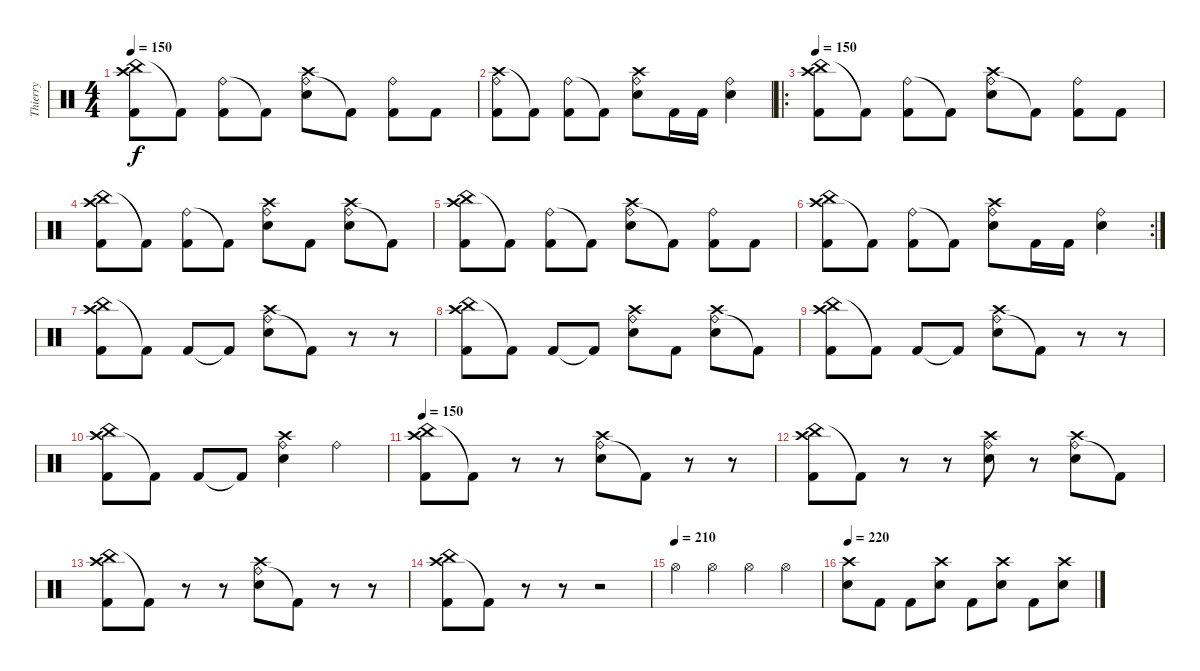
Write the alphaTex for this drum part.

\track ("Thierry" "Thierry") {instrument percussion}
\staff {score}
\articulation defaults
\ts (4 4)
\tempo 150
\clef neutral
\ks c
("China (hit)" "Crash high (hit)" "Kick (hit) 2").8{dy f} "Kick (hit) 2"{t}.8 ("Ride (bell)" "Kick (hit) 2").8 "Kick (hit) 2"{t}.8 ("Ride (bell)" "Crash high (hit)" "Electric Snare (hit)").8 "Kick (hit) 2"{t}.8 ("Ride (bell)" "Kick (hit) 2").8 "Kick (hit) 2".8 |
("Crash high (hit)" "Ride (bell)" "Kick (hit) 2").8 "Kick (hit) 2"{t}.8 ("Ride (bell)" "Kick (hit) 2").8 "Kick (hit) 2"{t}.8 ("Crash high (hit)" "Ride (bell)" "Electric Snare (hit)").8 "Kick (hit) 2".16 "Kick (hit) 2".16 ("Ride (bell)" "Electric Snare (hit)").4 |
\ro
\tempo 150
("China (hit)" "Crash high (hit)" "Kick (hit) 2").8 "Kick (hit) 2"{t}.8 ("Ride (bell)" "Kick (hit) 2").8 "Kick (hit) 2"{t}.8 ("Ride (bell)" "Crash high (hit)" "Electric Snare (hit)").8 "Kick (hit) 2"{t}.8 ("Ride (bell)" "Kick (hit) 2").8 "Kick (hit) 2".8 |
("China (hit)" "Crash high (hit)" "Kick (hit) 2").8 "Kick (hit) 2"{t}.8 ("Ride (bell)" "Kick (hit) 2").8 "Kick (hit) 2"{t}.8 ("Ride (bell)" "Crash high (hit)" "Electric Snare (hit)").8 "Kick (hit) 2".8 ("Ride (bell)" "Crash high (hit)" "Electric Snare (hit)").8 "Kick (hit) 2"{t}.8 |
("China (hit)" "Crash high (hit)" "Kick (hit) 2").8 "Kick (hit) 2"{t}.8 ("Ride (bell)" "Kick (hit) 2").8 "Kick (hit) 2"{t}.8 ("Ride (bell)" "Crash high (hit)" "Electric Snare (hit)").8 "Kick (hit) 2"{t}.8 ("Ride (bell)" "Kick (hit) 2").8 "Kick (hit) 2".8 |
\rc 2
("Crash high (hit)" "China (hit)" "Kick (hit) 2").8 "Kick (hit) 2"{t}.8 ("Ride (bell)" "Kick (hit) 2").8 "Kick (hit) 2"{t}.8 ("Crash high (hit)" "Ride (bell)" "Electric Snare (hit)").8 "Kick (hit) 2".16 "Kick (hit) 2".16 ("Ride (bell)" "Electric Snare (hit)").4 |
("China (hit)" "Crash high (hit)" "Kick (hit) 2").8 "Kick (hit) 2"{t}.8 "Kick (hit) 2".8 "Kick (hit) 2"{t}.8 ("Ride (bell)" "Crash high (hit)" "Electric Snare (hit)").8 "Kick (hit) 2"{t}.8 r.8 r.8 |
("China (hit)" "Crash high (hit)" "Kick (hit) 2").8 "Kick (hit) 2"{t}.8 "Kick (hit) 2".8 "Kick (hit) 2"{t}.8 ("Ride (bell)" "Crash high (hit)" "Electric Snare (hit)").8 "Kick (hit) 2".8 ("Ride (bell)" "Crash high (hit)" "Electric Snare (hit)").8 "Kick (hit) 2"{t}.8 |
("China (hit)" "Crash high (hit)" "Kick (hit) 2").8 "Kick (hit) 2"{t}.8 "Kick (hit) 2".8 "Kick (hit) 2"{t}.8 ("Ride (bell)" "Crash high (hit)" "Electric Snare (hit)").8 "Kick (hit) 2"{t}.8 r.8 r.8 |
("Crash high (hit)" "China (hit)" "Kick (hit) 2").8 "Kick (hit) 2"{t}.8 "Kick (hit) 2".8 "Kick (hit) 2"{t}.8 ("Crash high (hit)" "Ride (bell)" "Electric Snare (hit)").4 "Ride (bell)".4 |
\tempo 150
("China (hit)" "Crash high (hit)" "Kick (hit) 2").8 "Kick (hit) 2"{t}.8 r.8 r.8 ("Ride (bell)" "Crash high (hit)" "Electric Snare (hit)").8 "Kick (hit) 2"{t}.8 r.8 r.8 |
("China (hit)" "Crash high (hit)" "Kick (hit) 2").8 "Kick (hit) 2"{t}.8 r.8 r.8 ("Ride (bell)" "Crash high (hit)" "Electric Snare (hit)").8 r.8 ("Ride (bell)" "Crash high (hit)" "Electric Snare (hit)").8 "Kick (hit) 2"{t}.8 |
("China (hit)" "Crash high (hit)" "Kick (hit) 2").8 "Kick (hit) 2"{t}.8 r.8 r.8 ("Ride (bell)" "Crash high (hit)" "Electric Snare (hit)").8 "Kick (hit) 2"{t}.8 r.8 r.8 |
("Crash high (hit)" "China (hit)" "Kick (hit) 2").8 "Kick (hit) 2"{t}.8 r.8 r.8 r.2 |
\tempo (210)
"Hi-Hat (open)".4 "Hi-Hat (open)".4 "Hi-Hat (open)".4 "Hi-Hat (open)".4 |
\tempo 220
("Crash high (hit)" "Electric Snare (hit)").8 "Kick (hit) 2".8 "Kick (hit) 2".8 ("Crash high (hit)" "Electric Snare (hit)").8 "Kick (hit) 2".8 ("Crash high (hit)" "Electric Snare (hit)").8 "Kick (hit) 2".8 ("Crash high (hit)" "Electric Snare (hit)").8
